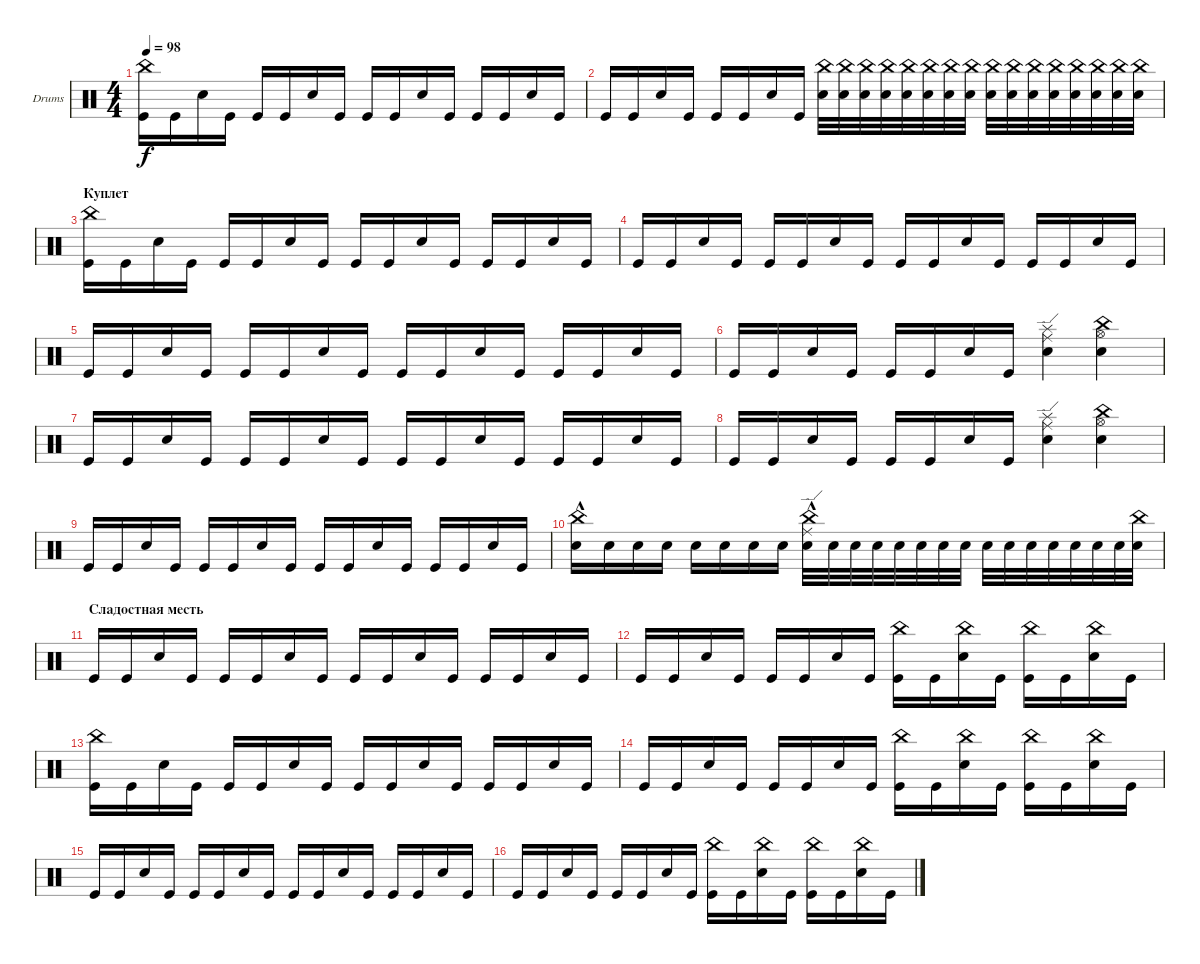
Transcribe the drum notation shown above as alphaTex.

\defaultSystemsLayout 4
\bracketExtendMode groupsimilarinstruments
\firstSystemTrackNameOrientation horizontal
\otherSystemsTrackNameOrientation horizontal
\track ("Drumkit" "Drums") {instrument percussion}
\staff {score}
\articulation defaults
\ts (4 4)
\tempo 98
\clef neutral
\ks c
("Kick (hit)" "China (hit)").16{dy f} "Kick (hit)".16 "Snare (hit) 2".16 "Kick (hit)".16 "Kick (hit)".16 "Kick (hit)".16 "Snare (hit) 2".16 "Kick (hit)".16 "Kick (hit)".16 "Kick (hit)".16 "Snare (hit) 2".16 "Kick (hit)".16 "Kick (hit)".16 "Kick (hit)".16 "Snare (hit) 2".16 "Kick (hit)".16 |
"Kick (hit)".16 "Kick (hit)".16 "Snare (hit) 2".16 "Kick (hit)".16 "Kick (hit)".16 "Kick (hit)".16 "Snare (hit) 2".16 "Kick (hit)".16 ("Snare (hit) 2" "China (hit)").32 ("Snare (hit) 2" "China (hit)").32 ("Snare (hit) 2" "China (hit)").32 ("Snare (hit) 2" "China (hit)").32 ("Snare (hit) 2" "China (hit)").32 ("Snare (hit) 2" "China (hit)").32 ("Snare (hit) 2" "China (hit)").32 ("Snare (hit) 2" "China (hit)").32 ("Snare (hit) 2" "China (hit)").32 ("Snare (hit) 2" "China (hit)").32 ("Snare (hit) 2" "China (hit)").32 ("Snare (hit) 2" "China (hit)").32 ("Snare (hit) 2" "China (hit)").32 ("Snare (hit) 2" "China (hit)").32 ("Snare (hit) 2" "China (hit)").32 ("Snare (hit) 2" "China (hit)").32 |
\section ("" "Куплет")
("Kick (hit)" "China (hit)").16 "Kick (hit)".16 "Snare (hit) 2".16 "Kick (hit)".16 "Kick (hit)".16 "Kick (hit)".16 "Snare (hit) 2".16 "Kick (hit)".16 "Kick (hit)".16 "Kick (hit)".16 "Snare (hit) 2".16 "Kick (hit)".16 "Kick (hit)".16 "Kick (hit)".16 "Snare (hit) 2".16 "Kick (hit)".16 |
"Kick (hit)".16 "Kick (hit)".16 "Snare (hit) 2".16 "Kick (hit)".16 "Kick (hit)".16 "Kick (hit)".16 "Snare (hit) 2".16 "Kick (hit)".16 "Kick (hit)".16 "Kick (hit)".16 "Snare (hit) 2".16 "Kick (hit)".16 "Kick (hit)".16 "Kick (hit)".16 "Snare (hit) 2".16 "Kick (hit)".16 |
"Kick (hit)".16 "Kick (hit)".16 "Snare (hit) 2".16 "Kick (hit)".16 "Kick (hit)".16 "Kick (hit)".16 "Snare (hit) 2".16 "Kick (hit)".16 "Kick (hit)".16 "Kick (hit)".16 "Snare (hit) 2".16 "Kick (hit)".16 "Kick (hit)".16 "Kick (hit)".16 "Snare (hit) 2".16 "Kick (hit)".16 |
"Kick (hit)".16 "Kick (hit)".16 "Snare (hit) 2".16 "Kick (hit)".16 "Kick (hit)".16 "Kick (hit)".16 "Snare (hit) 2".16 "Kick (hit)".16 ("Snare (hit) 2" "Splash (hit)" "Ride (edge)").4 ("China (hit)" "Snare (hit) 2" "Hi-Hat (open)").4 |
"Kick (hit)".16 "Kick (hit)".16 "Snare (hit) 2".16 "Kick (hit)".16 "Kick (hit)".16 "Kick (hit)".16 "Snare (hit) 2".16 "Kick (hit)".16 "Kick (hit)".16 "Kick (hit)".16 "Snare (hit) 2".16 "Kick (hit)".16 "Kick (hit)".16 "Kick (hit)".16 "Snare (hit) 2".16 "Kick (hit)".16 |
"Kick (hit)".16 "Kick (hit)".16 "Snare (hit) 2".16 "Kick (hit)".16 "Kick (hit)".16 "Kick (hit)".16 "Snare (hit) 2".16 "Kick (hit)".16 ("Snare (hit) 2" "Splash (hit)" "Ride (edge)").4 ("China (hit)" "Snare (hit) 2" "Hi-Hat (open)").4 |
"Kick (hit)".16 "Kick (hit)".16 "Snare (hit) 2".16 "Kick (hit)".16 "Kick (hit)".16 "Kick (hit)".16 "Snare (hit) 2".16 "Kick (hit)".16 "Kick (hit)".16 "Kick (hit)".16 "Snare (hit) 2".16 "Kick (hit)".16 "Kick (hit)".16 "Kick (hit)".16 "Snare (hit) 2".16 "Kick (hit)".16 |
("Snare (hit) 2" "China (hit)"{hac}).16 "Snare (hit) 2".16 "Snare (hit) 2".16 "Snare (hit) 2".16 "Snare (hit) 2".16 "Snare (hit) 2".16 "Snare (hit) 2".16 "Snare (hit) 2".16 ("Snare (hit) 2" "China (hit)"{hac} "Ride (edge)").32 "Snare (hit) 2".32 "Snare (hit) 2".32 "Snare (hit) 2".32 "Snare (hit) 2".32 "Snare (hit) 2".32 "Snare (hit) 2".32 "Snare (hit) 2".32 "Snare (hit) 2".32 "Snare (hit) 2".32 "Snare (hit) 2".32 "Snare (hit) 2".32 "Snare (hit) 2".32 "Snare (hit) 2".32 "Snare (hit) 2".32 ("Snare (hit) 2" "China (hit)").32 |
\section ("" "Сладостная месть")
"Kick (hit)".16 "Kick (hit)".16 "Snare (hit) 2".16 "Kick (hit)".16 "Kick (hit)".16 "Kick (hit)".16 "Snare (hit) 2".16 "Kick (hit)".16 "Kick (hit)".16 "Kick (hit)".16 "Snare (hit) 2".16 "Kick (hit)".16 "Kick (hit)".16 "Kick (hit)".16 "Snare (hit) 2".16 "Kick (hit)".16 |
"Kick (hit)".16 "Kick (hit)".16 "Snare (hit) 2".16 "Kick (hit)".16 "Kick (hit)".16 "Kick (hit)".16 "Snare (hit) 2".16 "Kick (hit)".16 ("Kick (hit)" "China (hit)").16 "Kick (hit)".16 ("Snare (hit) 2" "China (hit)").16 "Kick (hit)".16 ("Kick (hit)" "China (hit)").16 "Kick (hit)".16 ("Snare (hit) 2" "China (hit)").16 "Kick (hit)".16 |
("Kick (hit)" "China (hit)").16 "Kick (hit)".16 "Snare (hit) 2".16 "Kick (hit)".16 "Kick (hit)".16 "Kick (hit)".16 "Snare (hit) 2".16 "Kick (hit)".16 "Kick (hit)".16 "Kick (hit)".16 "Snare (hit) 2".16 "Kick (hit)".16 "Kick (hit)".16 "Kick (hit)".16 "Snare (hit) 2".16 "Kick (hit)".16 |
"Kick (hit)".16 "Kick (hit)".16 "Snare (hit) 2".16 "Kick (hit)".16 "Kick (hit)".16 "Kick (hit)".16 "Snare (hit) 2".16 "Kick (hit)".16 ("Kick (hit)" "China (hit)").16 "Kick (hit)".16 ("Snare (hit) 2" "China (hit)").16 "Kick (hit)".16 ("Kick (hit)" "China (hit)").16 "Kick (hit)".16 ("Snare (hit) 2" "China (hit)").16 "Kick (hit)".16 |
"Kick (hit)".16 "Kick (hit)".16 "Snare (hit) 2".16 "Kick (hit)".16 "Kick (hit)".16 "Kick (hit)".16 "Snare (hit) 2".16 "Kick (hit)".16 "Kick (hit)".16 "Kick (hit)".16 "Snare (hit) 2".16 "Kick (hit)".16 "Kick (hit)".16 "Kick (hit)".16 "Snare (hit) 2".16 "Kick (hit)".16 |
"Kick (hit)".16 "Kick (hit)".16 "Snare (hit) 2".16 "Kick (hit)".16 "Kick (hit)".16 "Kick (hit)".16 "Snare (hit) 2".16 "Kick (hit)".16 ("Kick (hit)" "China (hit)").16 "Kick (hit)".16 ("Snare (hit) 2" "China (hit)").16 "Kick (hit)".16 ("Kick (hit)" "China (hit)").16 "Kick (hit)".16 ("Snare (hit) 2" "China (hit)").16 "Kick (hit)".16
